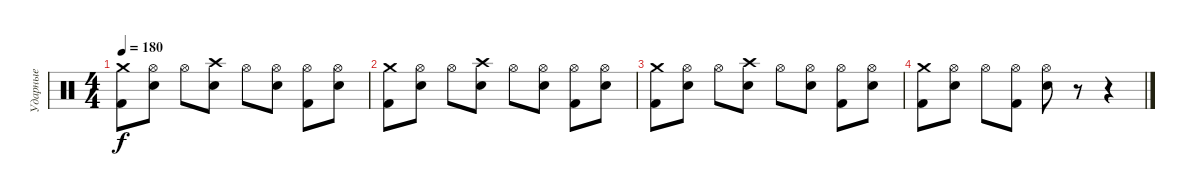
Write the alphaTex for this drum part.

\track ("Ударные" "Ударные") {instrument percussion}
\staff {score}
\articulation defaults
\ts (4 4)
\tempo 180
\clef neutral
\ks c
("Crash medium (hit)" "Kick (hit) 2").8{dy f} ("Hi-Hat (open)" "Snare (hit) 2").8 "Hi-Hat (open)".8 ("Crash high (hit)" "Snare (hit) 2").8 "Hi-Hat (open)".8 ("Hi-Hat (open)" "Snare (hit) 2").8 ("Hi-Hat (open)" "Kick (hit) 2").8 ("Hi-Hat (open)" "Snare (hit) 2").8 |
("Crash medium (hit)" "Kick (hit) 2").8 ("Hi-Hat (open)" "Snare (hit) 2").8 "Hi-Hat (open)".8 ("Crash high (hit)" "Snare (hit) 2").8 "Hi-Hat (open)".8 ("Hi-Hat (open)" "Snare (hit) 2").8 ("Hi-Hat (open)" "Kick (hit) 2").8 ("Hi-Hat (open)" "Snare (hit) 2").8 |
("Crash medium (hit)" "Kick (hit) 2").8 ("Hi-Hat (open)" "Snare (hit) 2").8 "Hi-Hat (open)".8 ("Crash high (hit)" "Snare (hit) 2").8 "Hi-Hat (open)".8 ("Hi-Hat (open)" "Snare (hit) 2").8 ("Hi-Hat (open)" "Kick (hit) 2").8 ("Hi-Hat (open)" "Snare (hit) 2").8 |
("Crash medium (hit)" "Kick (hit) 2").8 ("Hi-Hat (open)" "Snare (hit) 2").8 "Hi-Hat (open)".8 ("Hi-Hat (open)" "Kick (hit) 2").8 ("Hi-Hat (open)" "Snare (hit) 2").8 r.8 r.4
